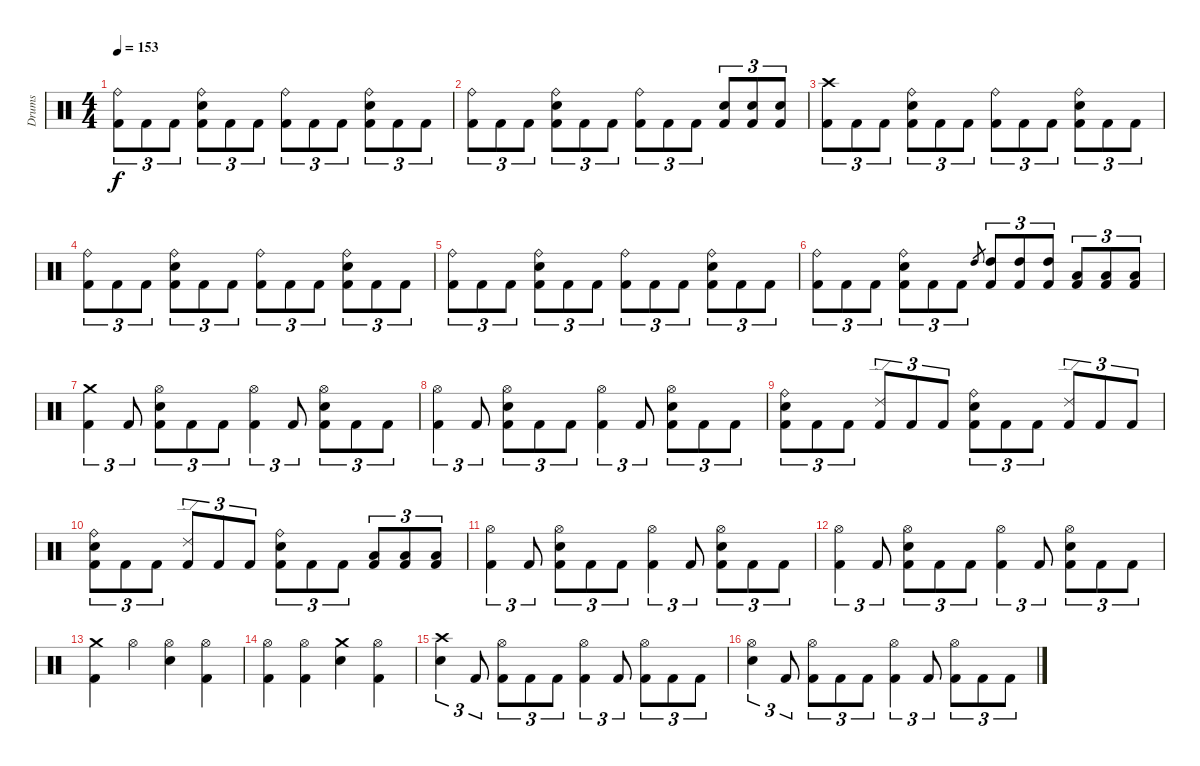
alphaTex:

\track ("Drums" "Drums") {instrument percussion}
\staff {score}
\articulation defaults
\ts (4 4)
\tempo 153
\clef neutral
\ks c
("Ride (bell)" "Kick (hit) 2").8{tu (3 2) dy f} "Kick (hit) 2".8{tu (3 2)} "Kick (hit) 2".8{tu (3 2)} ("Ride (bell)" "Electric Snare (hit)" "Kick (hit) 2").8{tu (3 2)} "Kick (hit) 2".8{tu (3 2)} "Kick (hit) 2".8{tu (3 2)} ("Ride (bell)" "Kick (hit) 2").8{tu (3 2)} "Kick (hit) 2".8{tu (3 2)} "Kick (hit) 2".8{tu (3 2)} ("Ride (bell)" "Electric Snare (hit)" "Kick (hit) 2").8{tu (3 2)} "Kick (hit) 2".8{tu (3 2)} "Kick (hit) 2".8{tu (3 2)} |
("Ride (bell)" "Kick (hit) 2").8{tu (3 2)} "Kick (hit) 2".8{tu (3 2)} "Kick (hit) 2".8{tu (3 2)} ("Ride (bell)" "Electric Snare (hit)" "Kick (hit) 2").8{tu (3 2)} "Kick (hit) 2".8{tu (3 2)} "Kick (hit) 2".8{tu (3 2)} ("Ride (bell)" "Kick (hit) 2").8{tu (3 2)} "Kick (hit) 2".8{tu (3 2)} "Kick (hit) 2".8{tu (3 2)} ("Electric Snare (hit)" "Kick (hit) 2").8{tu (3 2)} ("Electric Snare (hit)" "Kick (hit) 2").8{tu (3 2)} ("Electric Snare (hit)" "Kick (hit) 2").8{tu (3 2)} |
("Crash high (hit)" "Kick (hit) 2").8{tu (3 2)} "Kick (hit) 2".8{tu (3 2)} "Kick (hit) 2".8{tu (3 2)} ("Ride (bell)" "Electric Snare (hit)" "Kick (hit) 2").8{tu (3 2)} "Kick (hit) 2".8{tu (3 2)} "Kick (hit) 2".8{tu (3 2)} ("Ride (bell)" "Kick (hit) 2").8{tu (3 2)} "Kick (hit) 2".8{tu (3 2)} "Kick (hit) 2".8{tu (3 2)} ("Ride (bell)" "Electric Snare (hit)" "Kick (hit) 2").8{tu (3 2)} "Kick (hit) 2".8{tu (3 2)} "Kick (hit) 2".8{tu (3 2)} |
("Ride (bell)" "Kick (hit) 2").8{tu (3 2)} "Kick (hit) 2".8{tu (3 2)} "Kick (hit) 2".8{tu (3 2)} ("Ride (bell)" "Electric Snare (hit)" "Kick (hit) 2").8{tu (3 2)} "Kick (hit) 2".8{tu (3 2)} "Kick (hit) 2".8{tu (3 2)} ("Ride (bell)" "Kick (hit) 2").8{tu (3 2)} "Kick (hit) 2".8{tu (3 2)} "Kick (hit) 2".8{tu (3 2)} ("Ride (bell)" "Electric Snare (hit)" "Kick (hit) 2").8{tu (3 2)} "Kick (hit) 2".8{tu (3 2)} "Kick (hit) 2".8{tu (3 2)} |
("Ride (bell)" "Kick (hit) 2").8{tu (3 2)} "Kick (hit) 2".8{tu (3 2)} "Kick (hit) 2".8{tu (3 2)} ("Ride (bell)" "Electric Snare (hit)" "Kick (hit) 2").8{tu (3 2)} "Kick (hit) 2".8{tu (3 2)} "Kick (hit) 2".8{tu (3 2)} ("Ride (bell)" "Kick (hit) 2").8{tu (3 2)} "Kick (hit) 2".8{tu (3 2)} "Kick (hit) 2".8{tu (3 2)} ("Ride (bell)" "Electric Snare (hit)" "Kick (hit) 2").8{tu (3 2)} "Kick (hit) 2".8{tu (3 2)} "Kick (hit) 2".8{tu (3 2)} |
("Ride (bell)" "Kick (hit) 2").8{tu (3 2)} "Kick (hit) 2".8{tu (3 2)} "Kick (hit) 2".8{tu (3 2)} ("Ride (bell)" "Electric Snare (hit)" "Kick (hit) 2").8{tu (3 2)} "Kick (hit) 2".8{tu (3 2)} "Kick (hit) 2".8{tu (3 2)} "High Tom (hit)".8{gr} ("High Tom (hit)" "Kick (hit) 2").8{tu (3 2)} ("High Tom (hit)" "Kick (hit) 2").8{tu (3 2)} ("High Tom (hit)" "Kick (hit) 2").8{tu (3 2)} ("Low Tom (hit)" "Kick (hit) 2").8{tu (3 2)} ("Low Tom (hit)" "Kick (hit) 2").8{tu (3 2)} ("Low Tom (hit)" "Kick (hit) 2").8{tu (3 2)} |
("Crash medium (hit)" "Kick (hit) 2").4{tu (3 2)} "Kick (hit) 2".8{tu (3 2)} ("Hi-Hat (open)" "Electric Snare (hit)" "Kick (hit) 2").8{tu (3 2)} "Kick (hit) 2".8{tu (3 2)} "Kick (hit) 2".8{tu (3 2)} ("Hi-Hat (open)" "Kick (hit) 2").4{tu (3 2)} "Kick (hit) 2".8{tu (3 2)} ("Hi-Hat (open)" "Electric Snare (hit)" "Kick (hit) 2").8{tu (3 2)} "Kick (hit) 2".8{tu (3 2)} "Kick (hit) 2".8{tu (3 2)} |
("Hi-Hat (open)" "Kick (hit) 2").4{tu (3 2)} "Kick (hit) 2".8{tu (3 2)} ("Hi-Hat (open)" "Electric Snare (hit)" "Kick (hit) 2").8{tu (3 2)} "Kick (hit) 2".8{tu (3 2)} "Kick (hit) 2".8{tu (3 2)} ("Hi-Hat (open)" "Kick (hit) 2").4{tu (3 2)} "Kick (hit) 2".8{tu (3 2)} ("Hi-Hat (open)" "Electric Snare (hit)" "Kick (hit) 2").8{tu (3 2)} "Kick (hit) 2".8{tu (3 2)} "Kick (hit) 2".8{tu (3 2)} |
("Ride (bell)" "Electric Snare (hit)" "Kick (hit) 2").8{tu (3 2)} "Kick (hit) 2".8{tu (3 2)} "Kick (hit) 2".8{tu (3 2)} ("Ride (edge) 2" "Kick (hit) 2").8{tu (3 2)} "Kick (hit) 2".8{tu (3 2)} "Kick (hit) 2".8{tu (3 2)} ("Ride (bell)" "Electric Snare (hit)" "Kick (hit) 2").8{tu (3 2)} "Kick (hit) 2".8{tu (3 2)} "Kick (hit) 2".8{tu (3 2)} ("Ride (edge) 2" "Kick (hit) 2").8{tu (3 2)} "Kick (hit) 2".8{tu (3 2)} "Kick (hit) 2".8{tu (3 2)} |
("Ride (bell)" "Electric Snare (hit)" "Kick (hit) 2").8{tu (3 2)} "Kick (hit) 2".8{tu (3 2)} "Kick (hit) 2".8{tu (3 2)} ("Ride (edge) 2" "Kick (hit) 2").8{tu (3 2)} "Kick (hit) 2".8{tu (3 2)} "Kick (hit) 2".8{tu (3 2)} ("Ride (bell)" "Electric Snare (hit)" "Kick (hit) 2").8{tu (3 2)} "Kick (hit) 2".8{tu (3 2)} "Kick (hit) 2".8{tu (3 2)} ("Low Tom (hit)" "Kick (hit) 2").8{tu (3 2)} ("Low Tom (hit)" "Kick (hit) 2").8{tu (3 2)} ("Low Tom (hit)" "Kick (hit) 2").8{tu (3 2)} |
("Hi-Hat (open)" "Kick (hit) 2").4{tu (3 2)} "Kick (hit) 2".8{tu (3 2)} ("Hi-Hat (open)" "Electric Snare (hit)" "Kick (hit) 2").8{tu (3 2)} "Kick (hit) 2".8{tu (3 2)} "Kick (hit) 2".8{tu (3 2)} ("Hi-Hat (open)" "Kick (hit) 2").4{tu (3 2)} "Kick (hit) 2".8{tu (3 2)} ("Hi-Hat (open)" "Electric Snare (hit)" "Kick (hit) 2").8{tu (3 2)} "Kick (hit) 2".8{tu (3 2)} "Kick (hit) 2".8{tu (3 2)} |
("Hi-Hat (open)" "Kick (hit) 2").4{tu (3 2)} "Kick (hit) 2".8{tu (3 2)} ("Hi-Hat (open)" "Electric Snare (hit)" "Kick (hit) 2").8{tu (3 2)} "Kick (hit) 2".8{tu (3 2)} "Kick (hit) 2".8{tu (3 2)} ("Hi-Hat (open)" "Kick (hit) 2").4{tu (3 2)} "Kick (hit) 2".8{tu (3 2)} ("Hi-Hat (open)" "Electric Snare (hit)" "Kick (hit) 2").8{tu (3 2)} "Kick (hit) 2".8{tu (3 2)} "Kick (hit) 2".8{tu (3 2)} |
("Crash medium (hit)" "Kick (hit) 2").4 "Hi-Hat (open)".4 ("Hi-Hat (open)" "Electric Snare (hit)").4 ("Hi-Hat (open)" "Kick (hit) 2").4 |
("Hi-Hat (open)" "Kick (hit) 2").4 ("Hi-Hat (open)" "Kick (hit) 2").4 ("Crash medium (hit)" "Electric Snare (hit)").4 ("Hi-Hat (open)" "Kick (hit) 2").4 |
("Crash high (hit)" "Electric Snare (hit)").4{tu (3 2)} "Kick (hit) 2".8{tu (3 2)} ("Hi-Hat (open)" "Kick (hit) 2").8{tu (3 2)} "Kick (hit) 2".8{tu (3 2)} "Kick (hit) 2".8{tu (3 2)} ("Hi-Hat (open)" "Kick (hit) 2").4{tu (3 2)} "Kick (hit) 2".8{tu (3 2)} ("Hi-Hat (open)" "Kick (hit) 2").8{tu (3 2)} "Kick (hit) 2".8{tu (3 2)} "Kick (hit) 2".8{tu (3 2)} |
("Hi-Hat (open)" "Electric Snare (hit)").4{tu (3 2)} "Kick (hit) 2".8{tu (3 2)} ("Hi-Hat (open)" "Kick (hit) 2").8{tu (3 2)} "Kick (hit) 2".8{tu (3 2)} "Kick (hit) 2".8{tu (3 2)} ("Hi-Hat (open)" "Kick (hit) 2").4{tu (3 2)} "Kick (hit) 2".8{tu (3 2)} ("Hi-Hat (open)" "Kick (hit) 2").8{tu (3 2)} "Kick (hit) 2".8{tu (3 2)} "Kick (hit) 2".8{tu (3 2)}
